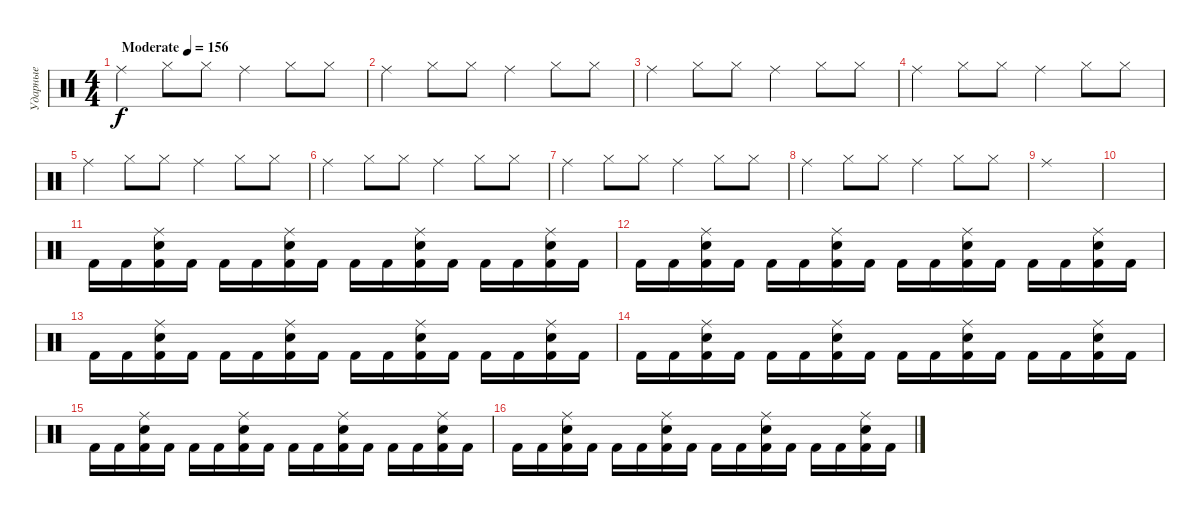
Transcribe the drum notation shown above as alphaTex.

\track ("Ударные" "Ударные") {instrument percussion}
\staff {score}
\articulation defaults
\ts (4 4)
\tempo (156 "Moderate")
\clef neutral
\ks c "Ride (middle)".4{dy f} "Hi-Hat (closed)".8 "Hi-Hat (closed)".8 "Ride (middle)".4 "Hi-Hat (closed)".8 "Hi-Hat (closed)".8
|
"Ride (middle)".4 "Hi-Hat (closed)".8 "Hi-Hat (closed)".8 "Ride (middle)".4 "Hi-Hat (closed)".8 "Hi-Hat (closed)".8 |
"Ride (middle)".4 "Hi-Hat (closed)".8 "Hi-Hat (closed)".8 "Ride (middle)".4 "Hi-Hat (closed)".8 "Hi-Hat (closed)".8 |
"Ride (middle)".4 "Hi-Hat (closed)".8 "Hi-Hat (closed)".8 "Ride (middle)".4 "Hi-Hat (closed)".8 "Hi-Hat (closed)".8 |
"Ride (middle)".4 "Hi-Hat (closed)".8 "Hi-Hat (closed)".8 "Ride (middle)".4 "Hi-Hat (closed)".8 "Hi-Hat (closed)".8 |
"Ride (middle)".4 "Hi-Hat (closed)".8 "Hi-Hat (closed)".8 "Ride (middle)".4 "Hi-Hat (closed)".8 "Hi-Hat (closed)".8 |
"Ride (middle)".4 "Hi-Hat (closed)".8 "Hi-Hat (closed)".8 "Ride (middle)".4 "Hi-Hat (closed)".8 "Hi-Hat (closed)".8 |
"Ride (middle)".4 "Hi-Hat (closed)".8 "Hi-Hat (closed)".8 "Ride (middle)".4 "Hi-Hat (closed)".8 "Hi-Hat (closed)".8 |
"Ride (middle)".1 |
|
"Kick (hit) 2".16 "Kick (hit) 2".16 ("Ride (middle)" "Electric Snare (hit)" "Kick (hit) 2").16 "Kick (hit) 2".16 "Kick (hit) 2".16 "Kick (hit) 2".16 ("Ride (middle)" "Electric Snare (hit)" "Kick (hit) 2").16 "Kick (hit) 2".16 "Kick (hit) 2".16 "Kick (hit) 2".16 ("Ride (middle)" "Electric Snare (hit)" "Kick (hit) 2").16 "Kick (hit) 2".16 "Kick (hit) 2".16 "Kick (hit) 2".16 ("Ride (middle)" "Electric Snare (hit)" "Kick (hit) 2").16 "Kick (hit) 2".16 |
"Kick (hit) 2".16 "Kick (hit) 2".16 ("Ride (middle)" "Electric Snare (hit)" "Kick (hit) 2").16 "Kick (hit) 2".16 "Kick (hit) 2".16 "Kick (hit) 2".16 ("Ride (middle)" "Electric Snare (hit)" "Kick (hit) 2").16 "Kick (hit) 2".16 "Kick (hit) 2".16 "Kick (hit) 2".16 ("Ride (middle)" "Electric Snare (hit)" "Kick (hit) 2").16 "Kick (hit) 2".16 "Kick (hit) 2".16 "Kick (hit) 2".16 ("Ride (middle)" "Electric Snare (hit)" "Kick (hit) 2").16 "Kick (hit) 2".16 |
"Kick (hit) 2".16 "Kick (hit) 2".16 ("Ride (middle)" "Electric Snare (hit)" "Kick (hit) 2").16 "Kick (hit) 2".16 "Kick (hit) 2".16 "Kick (hit) 2".16 ("Ride (middle)" "Electric Snare (hit)" "Kick (hit) 2").16 "Kick (hit) 2".16 "Kick (hit) 2".16 "Kick (hit) 2".16 ("Ride (middle)" "Electric Snare (hit)" "Kick (hit) 2").16 "Kick (hit) 2".16 "Kick (hit) 2".16 "Kick (hit) 2".16 ("Ride (middle)" "Electric Snare (hit)" "Kick (hit) 2").16 "Kick (hit) 2".16 |
"Kick (hit) 2".16 "Kick (hit) 2".16 ("Ride (middle)" "Electric Snare (hit)" "Kick (hit) 2").16 "Kick (hit) 2".16 "Kick (hit) 2".16 "Kick (hit) 2".16 ("Ride (middle)" "Electric Snare (hit)" "Kick (hit) 2").16 "Kick (hit) 2".16 "Kick (hit) 2".16 "Kick (hit) 2".16 ("Ride (middle)" "Electric Snare (hit)" "Kick (hit) 2").16 "Kick (hit) 2".16 "Kick (hit) 2".16 "Kick (hit) 2".16 ("Ride (middle)" "Electric Snare (hit)" "Kick (hit) 2").16 "Kick (hit) 2".16 |
"Kick (hit) 2".16 "Kick (hit) 2".16 ("Ride (middle)" "Electric Snare (hit)" "Kick (hit) 2").16 "Kick (hit) 2".16 "Kick (hit) 2".16 "Kick (hit) 2".16 ("Ride (middle)" "Electric Snare (hit)" "Kick (hit) 2").16 "Kick (hit) 2".16 "Kick (hit) 2".16 "Kick (hit) 2".16 ("Ride (middle)" "Electric Snare (hit)" "Kick (hit) 2").16 "Kick (hit) 2".16 "Kick (hit) 2".16 "Kick (hit) 2".16 ("Ride (middle)" "Electric Snare (hit)" "Kick (hit) 2").16 "Kick (hit) 2".16 |
"Kick (hit) 2".16 "Kick (hit) 2".16 ("Ride (middle)" "Electric Snare (hit)" "Kick (hit) 2").16 "Kick (hit) 2".16 "Kick (hit) 2".16 "Kick (hit) 2".16 ("Ride (middle)" "Electric Snare (hit)" "Kick (hit) 2").16 "Kick (hit) 2".16 "Kick (hit) 2".16 "Kick (hit) 2".16 ("Ride (middle)" "Electric Snare (hit)" "Kick (hit) 2").16 "Kick (hit) 2".16 "Kick (hit) 2".16 "Kick (hit) 2".16 ("Ride (middle)" "Electric Snare (hit)" "Kick (hit) 2").16 "Kick (hit) 2".16
